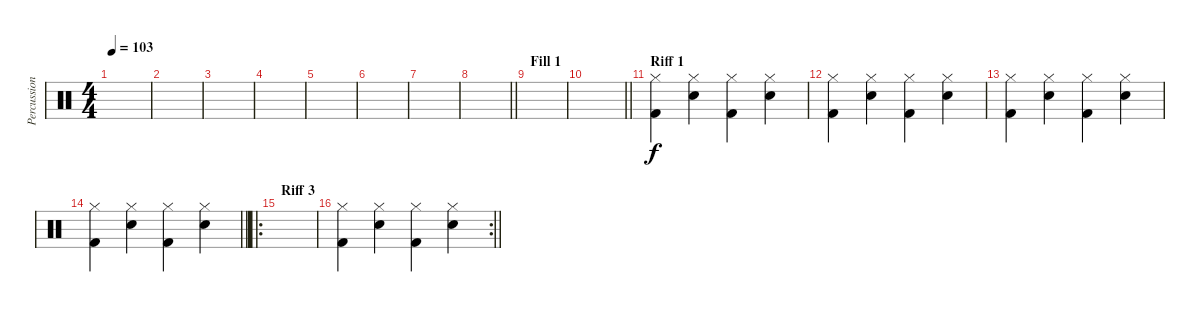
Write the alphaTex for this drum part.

\track ("Percussion" "Percussion") {instrument percussion}
\staff {score}
\articulation defaults
\ts (4 4)
\tempo 103
\clef neutral
\ks c
|
|
|
|
|
|
|
\barLineRight lightlight
|
\section ("" "Fill 1")
|
\barLineRight lightlight
|
\section ("" "Riff 1")
("Hi-Hat (closed)" "Kick (hit) 2").4 ("Hi-Hat (closed)" "Electric Snare (hit)").4 ("Hi-Hat (closed)" "Kick (hit) 2").4 ("Hi-Hat (closed)" "Electric Snare (hit)").4 |
("Hi-Hat (closed)" "Kick (hit) 2").4 ("Hi-Hat (closed)" "Electric Snare (hit)").4 ("Hi-Hat (closed)" "Kick (hit) 2").4 ("Hi-Hat (closed)" "Electric Snare (hit)").4 |
("Hi-Hat (closed)" "Kick (hit) 2").4 ("Hi-Hat (closed)" "Electric Snare (hit)").4 ("Hi-Hat (closed)" "Kick (hit) 2").4 ("Hi-Hat (closed)" "Electric Snare (hit)").4 |
\barLineRight lightlight
("Hi-Hat (closed)" "Kick (hit) 2").4 ("Hi-Hat (closed)" "Electric Snare (hit)").4 ("Hi-Hat (closed)" "Kick (hit) 2").4 ("Hi-Hat (closed)" "Electric Snare (hit)").4 |
\ro
\section ("" "Riff 3")
|
\rc 2
\barLineRight lightlight
("Hi-Hat (closed)" "Kick (hit) 2").4 ("Hi-Hat (closed)" "Electric Snare (hit)").4 ("Hi-Hat (closed)" "Kick (hit) 2").4 ("Hi-Hat (closed)" "Electric Snare (hit)").4
